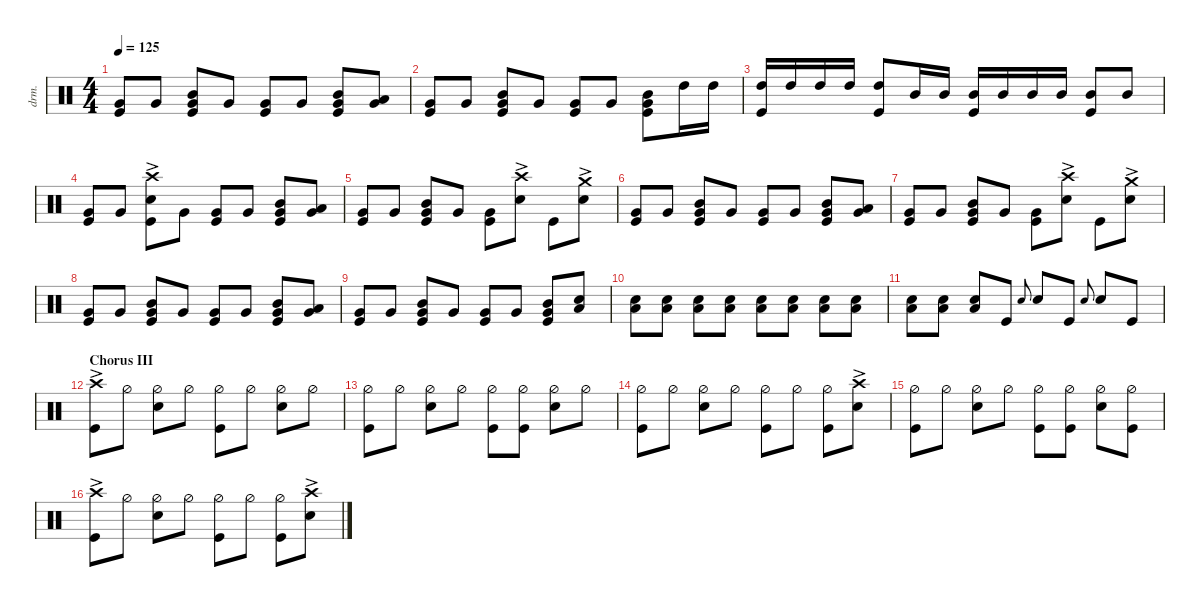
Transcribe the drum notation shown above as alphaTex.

\defaultSystemsLayout 4
\hideDynamics
\bracketExtendMode nobrackets
\track ("Drums" "drm.") {defaultSystemsLayout 4 multiBarRest instrument percussion}
\staff {score}
\articulation defaults
\ts (4 4)
\tempo 125
\clef neutral
\ks c
("Kick (hit)" "Very Low Tom (hit)").8{dy f beam Up} "Very Low Tom (hit)".8{dy mf beam Up} ("Very Low Tom (hit)" "Kick (hit)" "Mid Tom (hit)").8{dy f beam Up} "Very Low Tom (hit)".8{dy mf beam Up} ("Very Low Tom (hit)" "Kick (hit)").8{dy f beam Up} "Very Low Tom (hit)".8{dy mf beam Up} ("Very Low Tom (hit)" "Kick (hit)" "Mid Tom (hit)").8{dy f beam Up} ("Very Low Tom (hit)" "Low Tom (hit)").8{beam Up} |
("Kick (hit)" "Very Low Tom (hit)").8{beam Up} "Very Low Tom (hit)".8{dy mf beam Up} ("Very Low Tom (hit)" "Kick (hit)" "Mid Tom (hit)").8{dy f beam Up} "Very Low Tom (hit)".8{dy mf beam Up} ("Very Low Tom (hit)" "Kick (hit)").8{dy f beam Up} "Very Low Tom (hit)".8{dy mf beam Up} ("Very Low Tom (hit)" "Kick (hit)" "Mid Tom (hit)").8{dy f beam Down} "High Tom (hit)".16{beam Down} "High Tom (hit)".16{beam Down} |
("High Tom (hit)" "Kick (hit)").16{beam Up} "High Tom (hit)".16{beam Up} "High Tom (hit)".16{beam Up} "High Tom (hit)".16{beam Up} ("High Tom (hit)" "Kick (hit)").8{beam Up} "Mid Tom (hit)".16{beam Up} "Mid Tom (hit)".16{beam Up} ("Mid Tom (hit)" "Kick (hit)").16{beam Up} "Mid Tom (hit)".16{beam Up} "Mid Tom (hit)".16{beam Up} "Mid Tom (hit)".16{beam Up} ("Mid Tom (hit)" "Kick (hit)").8{beam Up} "Mid Tom (hit)".8{beam Up} |
("Kick (hit)" "Very Low Tom (hit)").8{beam Up} "Very Low Tom (hit)".8{dy mf beam Up} ("Kick (hit)" "Crash high (hit)"{ac} "Snare (hit) 2").8{dy f beam Down} "Very Low Tom (hit)".8{dy mf beam Down} ("Very Low Tom (hit)" "Kick (hit)").8{dy f beam Up} "Very Low Tom (hit)".8{dy mf beam Up} ("Very Low Tom (hit)" "Kick (hit)" "Mid Tom (hit)").8{dy f beam Up} ("Very Low Tom (hit)" "Low Tom (hit)").8{beam Up} |
("Kick (hit)" "Very Low Tom (hit)").8{beam Up} "Very Low Tom (hit)".8{dy mf beam Up} ("Very Low Tom (hit)" "Kick (hit)" "Mid Tom (hit)").8{dy f beam Up} "Very Low Tom (hit)".8{dy mf beam Up} ("Very Low Tom (hit)" "Kick (hit)").8{dy f beam Down} ("Snare (hit) 2" "Crash high (hit)"{ac}).8{beam Down} "Kick (hit)".8{beam Down} ("Snare (hit) 2" "Crash medium (hit)"{ac}).8{beam Down} |
("Kick (hit)" "Very Low Tom (hit)").8{beam Up} "Very Low Tom (hit)".8{dy mf beam Up} ("Very Low Tom (hit)" "Kick (hit)" "Mid Tom (hit)").8{dy f beam Up} "Very Low Tom (hit)".8{dy mf beam Up} ("Very Low Tom (hit)" "Kick (hit)").8{dy f beam Up} "Very Low Tom (hit)".8{dy mf beam Up} ("Very Low Tom (hit)" "Kick (hit)" "Mid Tom (hit)").8{dy f beam Up} ("Very Low Tom (hit)" "Low Tom (hit)").8{beam Up} |
("Kick (hit)" "Very Low Tom (hit)").8{beam Up} "Very Low Tom (hit)".8{dy mf beam Up} ("Very Low Tom (hit)" "Kick (hit)" "Mid Tom (hit)").8{dy f beam Up} "Very Low Tom (hit)".8{dy mf beam Up} ("Very Low Tom (hit)" "Kick (hit)").8{dy f beam Down} ("Snare (hit) 2" "Crash high (hit)"{ac}).8{beam Down} "Kick (hit)".8{beam Down} ("Snare (hit) 2" "Crash medium (hit)"{ac}).8{beam Down} |
("Kick (hit)" "Very Low Tom (hit)").8{beam Up} "Very Low Tom (hit)".8{dy mf beam Up} ("Very Low Tom (hit)" "Kick (hit)" "Mid Tom (hit)").8{dy f beam Up} "Very Low Tom (hit)".8{dy mf beam Up} ("Very Low Tom (hit)" "Kick (hit)").8{dy f beam Up} "Very Low Tom (hit)".8{dy mf beam Up} ("Very Low Tom (hit)" "Kick (hit)" "Mid Tom (hit)").8{dy f beam Up} ("Very Low Tom (hit)" "Low Tom (hit)").8{beam Up} |
("Kick (hit)" "Very Low Tom (hit)").8{beam Up} "Very Low Tom (hit)".8{dy mf beam Up} ("Very Low Tom (hit)" "Kick (hit)" "Mid Tom (hit)").8{dy f beam Up} "Very Low Tom (hit)".8{dy mf beam Up} ("Very Low Tom (hit)" "Kick (hit)").8{dy f beam Up} "Very Low Tom (hit)".8{dy mf beam Up} ("Very Low Tom (hit)" "Kick (hit)" "Mid Tom (hit)").8{dy f beam Up} ("Low Tom (hit)" "Snare (hit) 2").8{dy p beam Up} |
("Low Tom (hit)" "Snare (hit) 2").8{dy mp beam Down} ("Low Tom (hit)" "Snare (hit) 2").8{beam Down} ("Low Tom (hit)" "Snare (hit) 2").8{beam Down} ("Low Tom (hit)" "Snare (hit) 2").8{dy mf beam Down} ("Low Tom (hit)" "Snare (hit) 2").8{beam Down} ("Low Tom (hit)" "Snare (hit) 2").8{beam Down} ("Low Tom (hit)" "Snare (hit) 2").8{beam Down} ("Low Tom (hit)" "Snare (hit) 2").8{dy f beam Down} |
("Low Tom (hit)" "Snare (hit) 2").8{beam Down} ("Low Tom (hit)" "Snare (hit) 2").8{beam Down} ("Low Tom (hit)" "Snare (hit) 2").8{beam Up} "Kick (hit)".8{beam Up} "Snare (hit) 2".8{gr onbeat beam Up} "Snare (hit) 2".8{beam Up} "Kick (hit)".8{beam Up} "Snare (hit) 2".8{gr onbeat beam Up} "Snare (hit) 2".8{beam Up} "Kick (hit)".8{beam Up} |
\section ("" "Chorus III")
("Kick (hit)" "Crash high (hit)"{ac}).8{beam Down} "Hi-Hat (half)".8{beam Down} ("Hi-Hat (half)" "Snare (hit) 2").8{beam Down} "Hi-Hat (half)".8{beam Down} ("Hi-Hat (half)" "Kick (hit)").8{beam Down} "Hi-Hat (half)".8{beam Down} ("Hi-Hat (half)" "Snare (hit) 2").8{beam Down} "Hi-Hat (half)".8{beam Down} |
("Hi-Hat (half)" "Kick (hit)").8{beam Down} "Hi-Hat (half)".8{beam Down} ("Hi-Hat (half)" "Snare (hit) 2").8{beam Down} "Hi-Hat (half)".8{beam Down} ("Hi-Hat (half)" "Kick (hit)").8{beam Down} ("Hi-Hat (half)" "Kick (hit)").8{beam Down} ("Hi-Hat (half)" "Snare (hit) 2").8{beam Down} "Hi-Hat (half)".8{beam Down} |
("Hi-Hat (half)" "Kick (hit)").8{beam Down} "Hi-Hat (half)".8{beam Down} ("Hi-Hat (half)" "Snare (hit) 2").8{beam Down} "Hi-Hat (half)".8{beam Down} ("Hi-Hat (half)" "Kick (hit)").8{beam Down} "Hi-Hat (half)".8{beam Down} ("Hi-Hat (half)" "Kick (hit)").8{beam Down} ("Snare (hit) 2" "Crash high (hit)"{ac}).8{beam Down} |
("Hi-Hat (half)" "Kick (hit)").8{beam Down} "Hi-Hat (half)".8{beam Down} ("Hi-Hat (half)" "Snare (hit) 2").8{beam Down} "Hi-Hat (half)".8{beam Down} ("Hi-Hat (half)" "Kick (hit)").8{beam Down} ("Hi-Hat (half)" "Kick (hit)").8{beam Down} ("Hi-Hat (half)" "Snare (hit) 2").8{beam Down} ("Hi-Hat (half)" "Kick (hit)").8{beam Down} |
("Kick (hit)" "Crash high (hit)"{ac}).8{beam Down} "Hi-Hat (half)".8{beam Down} ("Hi-Hat (half)" "Snare (hit) 2").8{beam Down} "Hi-Hat (half)".8{beam Down} ("Hi-Hat (half)" "Kick (hit)").8{beam Down} "Hi-Hat (half)".8{beam Down} ("Hi-Hat (half)" "Kick (hit)").8{beam Down} ("Snare (hit) 2" "Crash high (hit)"{ac}).8{beam Down}
